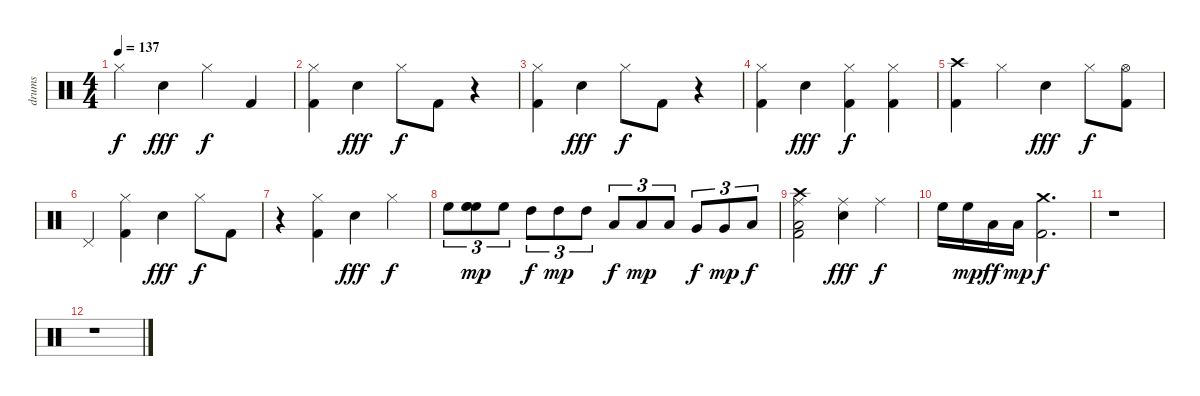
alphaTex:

\track ("drums" "drums") {instrument percussion}
\staff {score}
\articulation defaults
\ts (4 4)
\tempo 137
\clef neutral
\ks c "Hi-Hat (closed)".4{dy f} "Electric Snare (hit)".4{dy fff} "Hi-Hat (closed)".4{dy f} "Kick (hit) 2".4
|
("Hi-Hat (closed)" "Kick (hit) 2").4 "Electric Snare (hit)".4{dy fff} "Hi-Hat (closed)".8{dy f} "Kick (hit) 2".8 r.4 |
("Hi-Hat (closed)" "Kick (hit) 2").4 "Electric Snare (hit)".4{dy fff} "Hi-Hat (closed)".8{dy f} "Kick (hit) 2".8 r.4 |
("Hi-Hat (closed)" "Kick (hit) 2").4 "Electric Snare (hit)".4{dy fff} ("Kick (hit) 2" "Hi-Hat (closed)").4{dy f} ("Kick (hit) 2" "Hi-Hat (closed)").4 |
("Kick (hit) 2" "Crash high (hit)").4 "Hi-Hat (closed)".4 "Electric Snare (hit)".4{dy fff} "Hi-Hat (closed)".8{dy f} ("Kick (hit) 2" "Hi-Hat (open)").8 |
"Pedal Hi-Hat (hit)".4 ("Kick (hit) 2" "Hi-Hat (closed)").4 "Electric Snare (hit)".4{dy fff} "Hi-Hat (closed)".8{dy f} "Kick (hit) 2".8 |
r.4 ("Kick (hit) 2" "Hi-Hat (closed)").4 "Electric Snare (hit)".4{dy fff} "Hi-Hat (closed)".4{dy f} |
"High Floor Tom (hit)".8{tu (3 2)} ("High Floor Tom (hit)" "High Floor Tom (hit)" "High Floor Tom (hit)").8{tu (3 2) dy mp} "High Floor Tom (hit)".8{tu (3 2)} "High Tom (hit)".8{tu (3 2) dy f} "High Tom (hit)".8{tu (3 2) dy mp} "High Tom (hit)".8{tu (3 2)} "Low Tom (hit)".8{tu (3 2) dy f} "Low Tom (hit)".8{tu (3 2) dy mp} "Low Tom (hit)".8{tu (3 2)} "Very Low Tom (hit)".8{tu (3 2) dy f} "Very Low Tom (hit)".8{tu (3 2) dy mp} "Low Floor Tom (hit)".8{tu (3 2) dy f} |
("Crash high (hit)" "Ride (middle)" "Kick (hit) 2" "Low Floor Tom (hit)").2 ("Ride (middle)" "Electric Snare (hit)").4{dy fff} "Ride (middle)".4{dy f} |
"High Floor Tom (hit)".16 "High Floor Tom (hit)".16{dy mp} "Low Tom (hit)".16{dy ff} "Low Tom (hit)".16{dy mp} ("Crash medium (hit)" "Kick (hit) 2").2{d dy f} |
r.1 |
r.1
